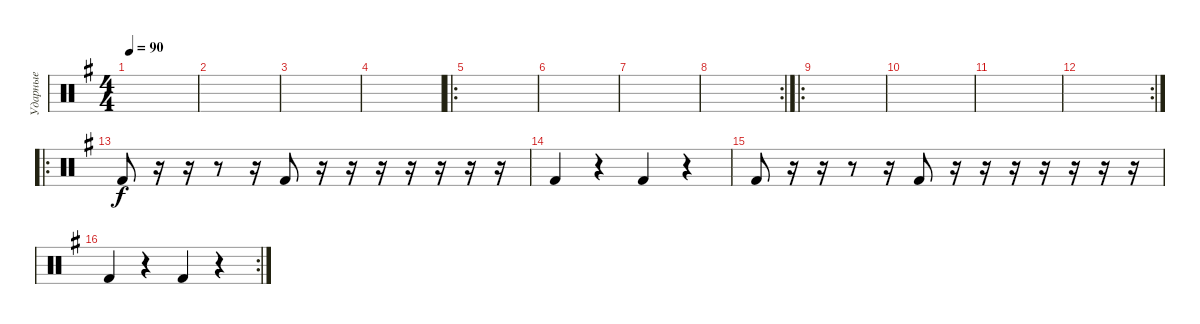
\track ("Ударные" "Ударные") {instrument percussion}
\staff {score}
\articulation defaults
\ts (4 4)
\tempo 90
\clef neutral
\ks g
|
|
|
|
\ro
|
|
|
\rc 2
|
\ro
|
|
|
\rc 2
|
\ro "Kick (hit) 2".8
r.16 r.16 r.8 r.16 "Kick (hit) 2".8 r.16 r.16 r.16 r.16 r.16 r.16 r.16 |
"Kick (hit) 2".4 r.4 "Kick (hit) 2".4 r.4 |
"Kick (hit) 2".8 r.16 r.16 r.8 r.16 "Kick (hit) 2".8 r.16 r.16 r.16 r.16 r.16 r.16 r.16 |
\rc 2 "Kick (hit) 2".4
r.4 "Kick (hit) 2".4 r.4
